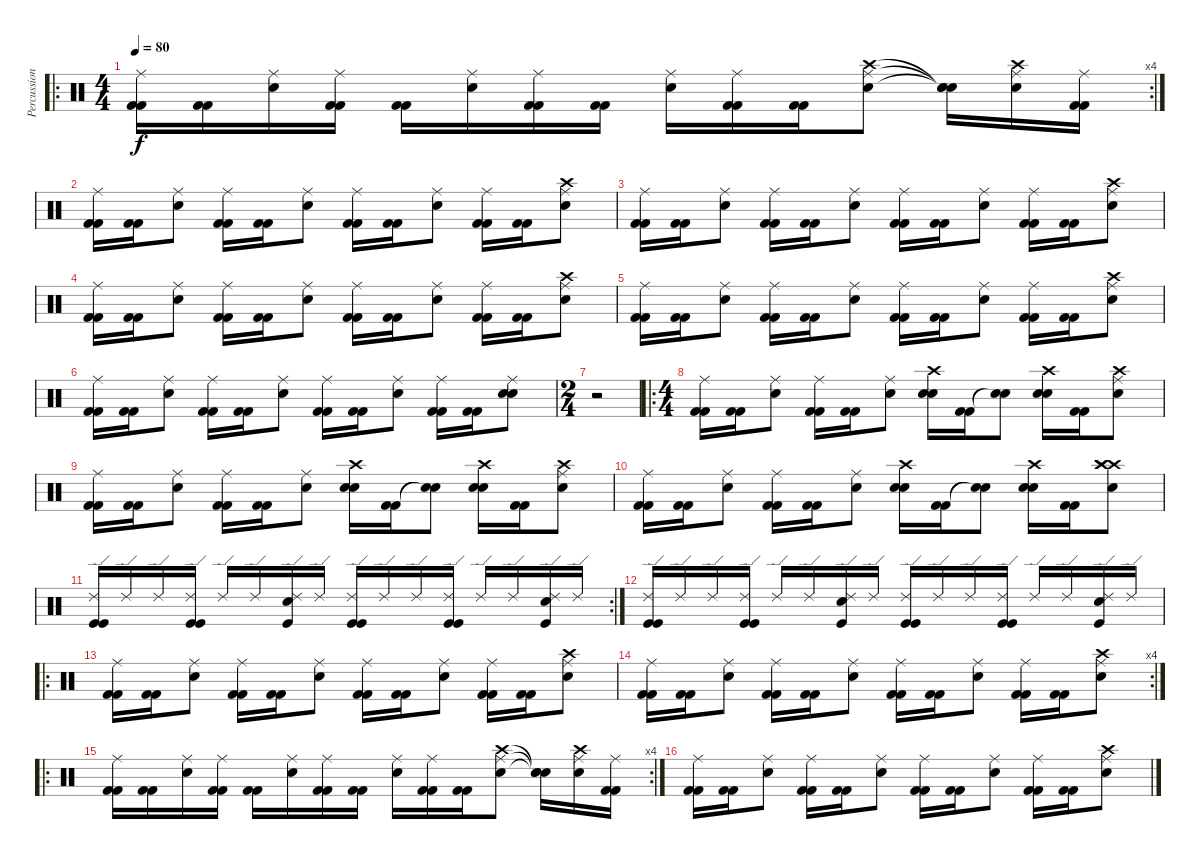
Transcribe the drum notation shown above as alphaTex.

\track ("Percussion" "Percussion") {instrument percussion}
\staff {score}
\articulation defaults
\ro
\rc 4
\ts (4 4)
\tempo 80
\clef neutral
\ks c
("Kick (hit) 2" "Kick (hit) 2" "Ride (middle)").16{dy f} ("Kick (hit) 2" "Kick (hit) 2").16 ("Snare (hit) 2" "Ride (middle)").16 ("Kick (hit) 2" "Kick (hit) 2" "Ride (middle)").16 ("Kick (hit) 2" "Kick (hit) 2").16 ("Snare (hit) 2" "Ride (middle)").16 ("Kick (hit) 2" "Kick (hit) 2" "Ride (middle)").16 ("Kick (hit) 2" "Kick (hit) 2").16 ("Snare (hit) 2" "Ride (middle)").16 ("Kick (hit) 2" "Kick (hit) 2" "Ride (middle)").16 ("Kick (hit) 2" "Kick (hit) 2").16 ("Snare (hit) 2" "Crash high (hit)" "Ride (middle)").8 ("Snare (hit)"{t} "Snare (hit)"{t} "Snare (hit)"{t}).16 ("Snare (hit) 2" "Crash high (hit)" "Ride (middle)").16 ("Kick (hit) 2" "Kick (hit) 2" "Ride (middle)").16 |
("Kick (hit) 2" "Kick (hit) 2" "Ride (middle)").16 ("Kick (hit) 2" "Kick (hit) 2").16 ("Snare (hit) 2" "Ride (middle)").8 ("Kick (hit) 2" "Kick (hit) 2" "Ride (middle)").16 ("Kick (hit) 2" "Kick (hit) 2").16 ("Snare (hit) 2" "Ride (middle)").8 ("Kick (hit) 2" "Kick (hit) 2" "Ride (middle)").16 ("Kick (hit) 2" "Kick (hit) 2").16 ("Snare (hit) 2" "Ride (middle)").8 ("Kick (hit) 2" "Kick (hit) 2" "Ride (middle)").16 ("Kick (hit) 2" "Kick (hit) 2").16 ("Snare (hit) 2" "Crash high (hit)" "Ride (middle)").8 |
("Kick (hit) 2" "Kick (hit) 2" "Ride (middle)").16 ("Kick (hit) 2" "Kick (hit) 2").16 ("Snare (hit) 2" "Ride (middle)").8 ("Kick (hit) 2" "Kick (hit) 2" "Ride (middle)").16 ("Kick (hit) 2" "Kick (hit) 2").16 ("Snare (hit) 2" "Ride (middle)").8 ("Kick (hit) 2" "Kick (hit) 2" "Ride (middle)").16 ("Kick (hit) 2" "Kick (hit) 2").16 ("Snare (hit) 2" "Ride (middle)").8 ("Kick (hit) 2" "Kick (hit) 2" "Ride (middle)").16 ("Kick (hit) 2" "Kick (hit) 2").16 ("Snare (hit) 2" "Crash high (hit)" "Ride (middle)").8 |
("Kick (hit) 2" "Kick (hit) 2" "Ride (middle)").16 ("Kick (hit) 2" "Kick (hit) 2").16 ("Snare (hit) 2" "Ride (middle)").8 ("Kick (hit) 2" "Kick (hit) 2" "Ride (middle)").16 ("Kick (hit) 2" "Kick (hit) 2").16 ("Snare (hit) 2" "Ride (middle)").8 ("Kick (hit) 2" "Kick (hit) 2" "Ride (middle)").16 ("Kick (hit) 2" "Kick (hit) 2").16 ("Snare (hit) 2" "Ride (middle)").8 ("Kick (hit) 2" "Kick (hit) 2" "Ride (middle)").16 ("Kick (hit) 2" "Kick (hit) 2").16 ("Snare (hit) 2" "Crash high (hit)" "Ride (middle)").8 |
("Kick (hit) 2" "Kick (hit) 2" "Ride (middle)").16 ("Kick (hit) 2" "Kick (hit) 2").16 ("Snare (hit) 2" "Ride (middle)").8 ("Kick (hit) 2" "Kick (hit) 2" "Ride (middle)").16 ("Kick (hit) 2" "Kick (hit) 2").16 ("Snare (hit) 2" "Ride (middle)").8 ("Kick (hit) 2" "Kick (hit) 2" "Ride (middle)").16 ("Kick (hit) 2" "Kick (hit) 2").16 ("Snare (hit) 2" "Ride (middle)").8 ("Kick (hit) 2" "Kick (hit) 2" "Ride (middle)").16 ("Kick (hit) 2" "Kick (hit) 2").16 ("Snare (hit) 2" "Crash high (hit)" "Ride (middle)").8 |
("Kick (hit) 2" "Kick (hit) 2" "Ride (middle)").16 ("Kick (hit) 2" "Kick (hit) 2").16 ("Snare (hit) 2" "Ride (middle)").8 ("Kick (hit) 2" "Kick (hit) 2" "Ride (middle)").16 ("Kick (hit) 2" "Kick (hit) 2").16 ("Snare (hit) 2" "Ride (middle)").8 ("Kick (hit) 2" "Kick (hit) 2" "Ride (middle)").16 ("Kick (hit) 2" "Kick (hit) 2").16 ("Snare (hit) 2" "Ride (middle)").8 ("Kick (hit) 2" "Kick (hit) 2" "Ride (middle)").16 ("Kick (hit) 2" "Kick (hit) 2").16 ("Snare (hit) 2" "Electric Snare (hit)" "Ride (middle)").8 |
\ts (2 4)
r.2 |
\ro
\ts (4 4)
("Kick (hit) 2" "Kick (hit) 2" "Ride (middle)").16 ("Kick (hit) 2" "Kick (hit) 2").16 ("Snare (hit) 2" "Ride (middle)").8 ("Kick (hit) 2" "Kick (hit) 2" "Ride (middle)").16 ("Kick (hit) 2" "Kick (hit) 2").16 ("Snare (hit) 2" "Ride (middle)").8 ("Snare (hit) 2" "Snare (hit) 2" "Crash high (hit)").16 ("Kick (hit) 2" "Kick (hit) 2").16 ("Snare (hit)"{t} "Snare (hit)"{t}).8 ("Snare (hit) 2" "Snare (hit) 2" "Crash high (hit)").16 ("Kick (hit) 2" "Kick (hit) 2").16 ("Snare (hit) 2" "Crash high (hit)" "Ride (middle)").8 |
("Kick (hit) 2" "Kick (hit) 2" "Ride (middle)").16 ("Kick (hit) 2" "Kick (hit) 2").16 ("Snare (hit) 2" "Ride (middle)").8 ("Kick (hit) 2" "Kick (hit) 2" "Ride (middle)").16 ("Kick (hit) 2" "Kick (hit) 2").16 ("Snare (hit) 2" "Ride (middle)").8 ("Snare (hit) 2" "Snare (hit) 2" "Crash high (hit)").16 ("Kick (hit) 2" "Kick (hit) 2").16 ("Snare (hit)"{t} "Snare (hit)"{t}).8 ("Snare (hit) 2" "Snare (hit) 2" "Crash high (hit)").16 ("Kick (hit) 2" "Kick (hit) 2").16 ("Snare (hit) 2" "Crash high (hit)" "Ride (middle)").8 |
("Kick (hit) 2" "Kick (hit) 2" "Ride (middle)").16 ("Kick (hit) 2" "Kick (hit) 2").16 ("Snare (hit) 2" "Ride (middle)").8 ("Kick (hit) 2" "Kick (hit) 2" "Ride (middle)").16 ("Kick (hit) 2" "Kick (hit) 2").16 ("Snare (hit) 2" "Ride (middle)").8 ("Snare (hit) 2" "Snare (hit) 2" "Crash high (hit)").16 ("Kick (hit) 2" "Kick (hit) 2").16 ("Snare (hit)"{t} "Snare (hit)"{t}).8 ("Snare (hit) 2" "Snare (hit) 2" "Crash high (hit)").16 ("Kick (hit) 2" "Kick (hit) 2").16 ("Crash high (hit)" "Crash high (hit)" "Snare (hit) 2" "Crash high (hit)").8 |
\rc 2
("Ride (edge) 2" "Kick (hit)" "Kick (hit)").16 "Ride (edge) 2".16 "Ride (edge) 2".16 ("Ride (edge) 2" "Kick (hit)" "Kick (hit)").16 "Ride (edge) 2".16 "Ride (edge) 2".16 ("Ride (edge) 2" "Electric Snare (hit)" "Kick (hit)").16 "Ride (edge) 2".16 ("Ride (edge) 2" "Kick (hit)" "Kick (hit)").16 "Ride (edge) 2".16 "Ride (edge) 2".16 ("Ride (edge) 2" "Kick (hit)" "Kick (hit)").16 "Ride (edge) 2".16 "Ride (edge) 2".16 ("Ride (edge) 2" "Electric Snare (hit)" "Kick (hit)").16 "Ride (edge) 2".16 |
("Ride (edge) 2" "Kick (hit)" "Kick (hit)").16 "Ride (edge) 2".16 "Ride (edge) 2".16 ("Ride (edge) 2" "Kick (hit)" "Kick (hit)").16 "Ride (edge) 2".16 "Ride (edge) 2".16 ("Ride (edge) 2" "Electric Snare (hit)" "Kick (hit)").16 "Ride (edge) 2".16 ("Ride (edge) 2" "Kick (hit)" "Kick (hit)").16 "Ride (edge) 2".16 "Ride (edge) 2".16 ("Ride (edge) 2" "Kick (hit)" "Kick (hit)").16 "Ride (edge) 2".16 "Ride (edge) 2".16 ("Ride (edge) 2" "Electric Snare (hit)" "Kick (hit)").16 "Ride (edge) 2".16 |
\ro
("Kick (hit) 2" "Kick (hit) 2" "Ride (middle)").16 ("Kick (hit) 2" "Kick (hit) 2").16 ("Snare (hit) 2" "Ride (middle)").8 ("Kick (hit) 2" "Kick (hit) 2" "Ride (middle)").16 ("Kick (hit) 2" "Kick (hit) 2").16 ("Snare (hit) 2" "Ride (middle)").8 ("Kick (hit) 2" "Kick (hit) 2" "Ride (middle)").16 ("Kick (hit) 2" "Kick (hit) 2").16 ("Snare (hit) 2" "Ride (middle)").8 ("Kick (hit) 2" "Kick (hit) 2" "Ride (middle)").16 ("Kick (hit) 2" "Kick (hit) 2").16 ("Snare (hit) 2" "Crash high (hit)" "Ride (middle)").8 |
\rc 4
("Kick (hit) 2" "Kick (hit) 2" "Ride (middle)").16 ("Kick (hit) 2" "Kick (hit) 2").16 ("Snare (hit) 2" "Ride (middle)").8 ("Kick (hit) 2" "Kick (hit) 2" "Ride (middle)").16 ("Kick (hit) 2" "Kick (hit) 2").16 ("Snare (hit) 2" "Ride (middle)").8 ("Kick (hit) 2" "Kick (hit) 2" "Ride (middle)").16 ("Kick (hit) 2" "Kick (hit) 2").16 ("Snare (hit) 2" "Ride (middle)").8 ("Kick (hit) 2" "Kick (hit) 2" "Ride (middle)").16 ("Kick (hit) 2" "Kick (hit) 2").16 ("Snare (hit) 2" "Crash high (hit)" "Ride (middle)").8 |
\ro
\rc 4
("Kick (hit) 2" "Kick (hit) 2" "Ride (middle)").16 ("Kick (hit) 2" "Kick (hit) 2").16 ("Snare (hit) 2" "Ride (middle)").16 ("Kick (hit) 2" "Kick (hit) 2" "Ride (middle)").16 ("Kick (hit) 2" "Kick (hit) 2").16 ("Snare (hit) 2" "Ride (middle)").16 ("Kick (hit) 2" "Kick (hit) 2" "Ride (middle)").16 ("Kick (hit) 2" "Kick (hit) 2").16 ("Snare (hit) 2" "Ride (middle)").16 ("Kick (hit) 2" "Kick (hit) 2" "Ride (middle)").16 ("Kick (hit) 2" "Kick (hit) 2").16 ("Snare (hit) 2" "Crash high (hit)" "Ride (middle)").8 ("Snare (hit)"{t} "Snare (hit)"{t} "Snare (hit)"{t}).16 ("Snare (hit) 2" "Crash high (hit)" "Ride (middle)").16 ("Kick (hit) 2" "Kick (hit) 2" "Ride (middle)").16 |
("Kick (hit) 2" "Kick (hit) 2" "Ride (middle)").16 ("Kick (hit) 2" "Kick (hit) 2").16 ("Snare (hit) 2" "Ride (middle)").8 ("Kick (hit) 2" "Kick (hit) 2" "Ride (middle)").16 ("Kick (hit) 2" "Kick (hit) 2").16 ("Snare (hit) 2" "Ride (middle)").8 ("Kick (hit) 2" "Kick (hit) 2" "Ride (middle)").16 ("Kick (hit) 2" "Kick (hit) 2").16 ("Snare (hit) 2" "Ride (middle)").8 ("Kick (hit) 2" "Kick (hit) 2" "Ride (middle)").16 ("Kick (hit) 2" "Kick (hit) 2").16 ("Snare (hit) 2" "Crash high (hit)" "Ride (middle)").8
